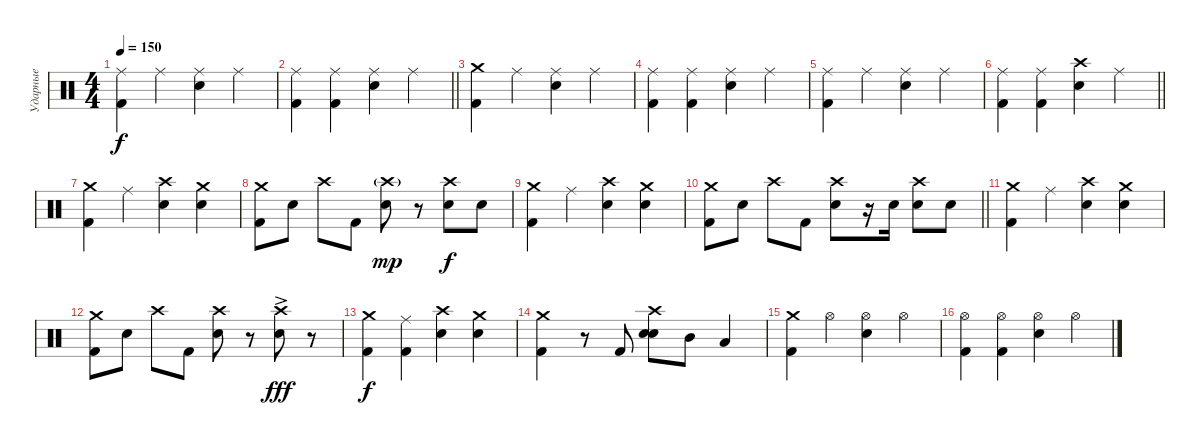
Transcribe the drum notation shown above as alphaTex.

\track ("Ударные" "Ударные") {instrument percussion}
\staff {score}
\articulation defaults
\ts (4 4)
\tempo 150
\clef neutral
\ks c
("Ride (middle)" "Kick (hit) 2").4{dy f} "Ride (middle)".4 ("Ride (middle)" "Electric Snare (hit)").4 "Ride (middle)".4 |
\barLineRight lightlight
("Ride (middle)" "Kick (hit) 2").4 ("Ride (middle)" "Kick (hit) 2").4 ("Ride (middle)" "Electric Snare (hit)").4 "Ride (middle)".4 |
("Crash medium (hit)" "Kick (hit) 2").4 "Ride (middle)".4 ("Ride (middle)" "Electric Snare (hit)").4 "Ride (middle)".4 |
("Ride (middle)" "Kick (hit) 2").4 ("Ride (middle)" "Kick (hit) 2").4 ("Ride (middle)" "Electric Snare (hit)").4 "Ride (middle)".4 |
("Ride (middle)" "Kick (hit) 2").4 "Ride (middle)".4 ("Ride (middle)" "Electric Snare (hit)").4 "Ride (middle)".4 |
\barLineRight lightlight
("Ride (middle)" "Kick (hit) 2").4 ("Ride (middle)" "Kick (hit) 2").4 ("Crash high (hit)" "Electric Snare (hit)").4 "Ride (middle)".4 |
("Crash medium (hit)" "Kick (hit) 2").4 "Ride (middle)".4 ("Crash high (hit)" "Electric Snare (hit)").4 ("Crash medium (hit)" "Electric Snare (hit)").4 |
("Crash medium (hit)" "Kick (hit) 2").8 "Electric Snare (hit)".8 "Crash high (hit)".8 "Kick (hit) 2".8 ("Crash high (hit)"{g} "Electric Snare (hit)").8{dy mp} r.8 ("Crash high (hit)" "Electric Snare (hit)").8{dy f} "Electric Snare (hit)".8 |
("Crash medium (hit)" "Kick (hit) 2").4 "Ride (middle)".4 ("Crash high (hit)" "Electric Snare (hit)").4 ("Crash medium (hit)" "Electric Snare (hit)").4 |
\barLineRight lightlight
("Crash medium (hit)" "Kick (hit) 2").8 "Electric Snare (hit)".8 "Crash high (hit)".8 "Kick (hit) 2".8 ("Crash high (hit)" "Electric Snare (hit)").8 r.16 "Electric Snare (hit)".16 ("Crash high (hit)" "Electric Snare (hit)").8 "Electric Snare (hit)".8 |
("Crash medium (hit)" "Kick (hit) 2").4 "Ride (middle)".4 ("Crash high (hit)" "Electric Snare (hit)").4 ("Crash medium (hit)" "Electric Snare (hit)").4 |
("Crash medium (hit)" "Kick (hit) 2").8 "Electric Snare (hit)".8 "Crash high (hit)".8 "Kick (hit) 2".8 ("Crash high (hit)" "Electric Snare (hit)").8 r.8 ("Crash high (hit)"{ac} "Electric Snare (hit)").8{dy fff} r.8 |
("Crash medium (hit)" "Kick (hit) 2").4{dy f} ("Ride (middle)" "Kick (hit) 2").4 ("Crash high (hit)" "Electric Snare (hit)").4 ("Crash medium (hit)" "Electric Snare (hit)").4 |
("Crash medium (hit)" "Kick (hit) 2").4 r.8 "Kick (hit) 2".8 ("Crash high (hit)" "Electric Snare (hit)" "Electric Snare (hit)").8{bu 120} "Mid Tom (hit)".8 "Low Tom (hit)".4 |
("Crash medium (hit)" "Kick (hit) 2").4 "Hi-Hat (open)".4 ("Hi-Hat (open)" "Electric Snare (hit)").4 "Hi-Hat (open)".4 |
("Hi-Hat (open)" "Kick (hit) 2").4 ("Hi-Hat (open)" "Kick (hit) 2").4 ("Hi-Hat (open)" "Electric Snare (hit)").4 "Hi-Hat (open)".4
